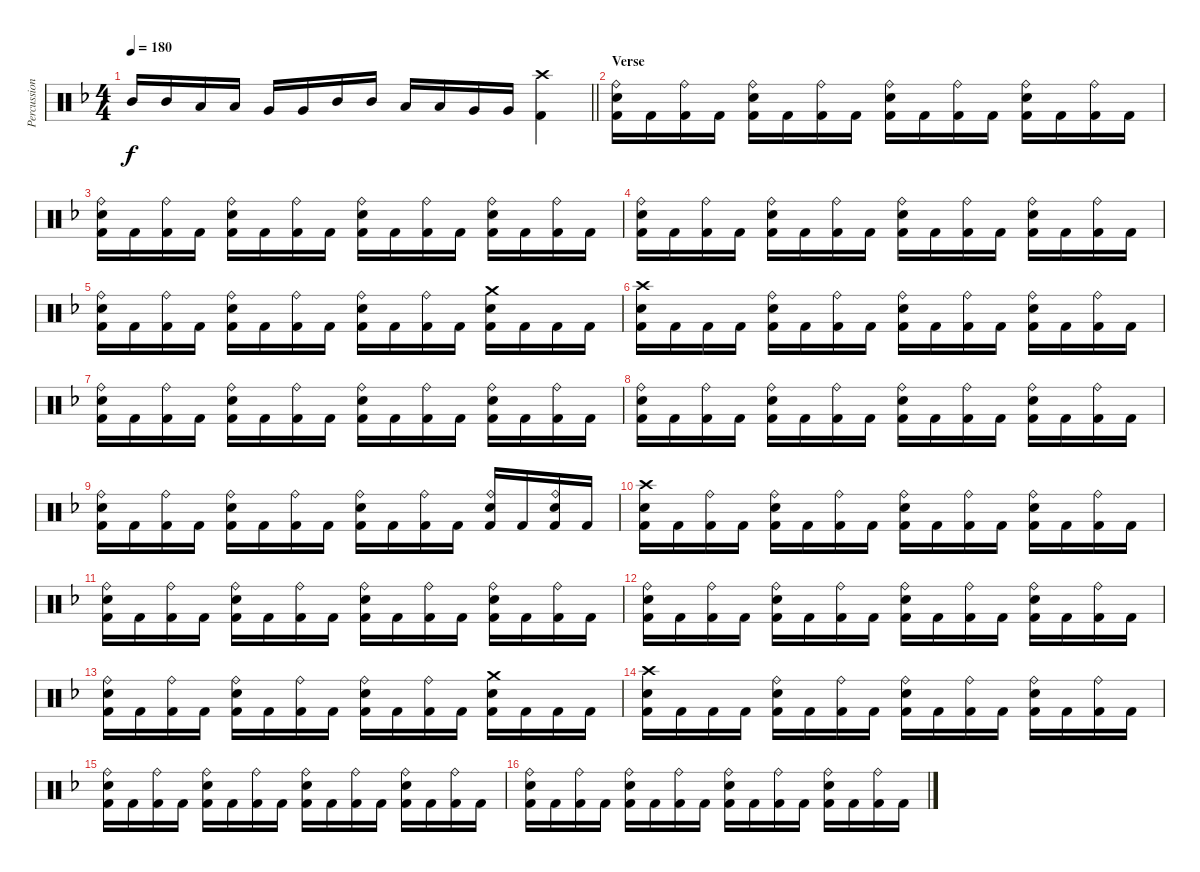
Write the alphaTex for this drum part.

\track ("Percussion" "Percussion") {instrument percussion}
\staff {score}
\articulation defaults
\ts (4 4)
\tempo 180
\clef neutral
\barLineRight lightlight
\ks dminor "Mid Tom (hit)".16{dy f} "Mid Tom (hit)".16 "Low Tom (hit)".16 "Low Tom (hit)".16 "Very Low Tom (hit)".16 "Very Low Tom (hit)".16 "Mid Tom (hit)".16 "Mid Tom (hit)".16 "Low Tom (hit)".16 "Low Tom (hit)".16 "Very Low Tom (hit)".16 "Very Low Tom (hit)".16
("Crash high (hit)" "Kick (hit) 2").4 |
\section ("" "Verse")
("Ride (bell)" "Snare (hit) 2" "Kick (hit) 2").16 "Kick (hit) 2".16 ("Ride (bell)" "Kick (hit) 2").16 "Kick (hit) 2".16 ("Ride (bell)" "Snare (hit) 2" "Kick (hit) 2").16 "Kick (hit) 2".16 ("Ride (bell)" "Kick (hit) 2").16 "Kick (hit) 2".16 ("Ride (bell)" "Snare (hit) 2" "Kick (hit) 2").16 "Kick (hit) 2".16 ("Ride (bell)" "Kick (hit) 2").16 "Kick (hit) 2".16 ("Ride (bell)" "Snare (hit) 2" "Kick (hit) 2").16 "Kick (hit) 2".16 ("Ride (bell)" "Kick (hit) 2").16 "Kick (hit) 2".16 |
("Ride (bell)" "Snare (hit) 2" "Kick (hit) 2").16 "Kick (hit) 2".16 ("Ride (bell)" "Kick (hit) 2").16 "Kick (hit) 2".16 ("Ride (bell)" "Snare (hit) 2" "Kick (hit) 2").16 "Kick (hit) 2".16 ("Ride (bell)" "Kick (hit) 2").16 "Kick (hit) 2".16 ("Ride (bell)" "Snare (hit) 2" "Kick (hit) 2").16 "Kick (hit) 2".16 ("Ride (bell)" "Kick (hit) 2").16 "Kick (hit) 2".16 ("Ride (bell)" "Snare (hit) 2" "Kick (hit) 2").16 "Kick (hit) 2".16 ("Ride (bell)" "Kick (hit) 2").16 "Kick (hit) 2".16 |
("Ride (bell)" "Snare (hit) 2" "Kick (hit) 2").16 "Kick (hit) 2".16 ("Ride (bell)" "Kick (hit) 2").16 "Kick (hit) 2".16 ("Ride (bell)" "Snare (hit) 2" "Kick (hit) 2").16 "Kick (hit) 2".16 ("Ride (bell)" "Kick (hit) 2").16 "Kick (hit) 2".16 ("Ride (bell)" "Snare (hit) 2" "Kick (hit) 2").16 "Kick (hit) 2".16 ("Ride (bell)" "Kick (hit) 2").16 "Kick (hit) 2".16 ("Ride (bell)" "Snare (hit) 2" "Kick (hit) 2").16 "Kick (hit) 2".16 ("Ride (bell)" "Kick (hit) 2").16 "Kick (hit) 2".16 |
("Ride (bell)" "Snare (hit) 2" "Kick (hit) 2").16 "Kick (hit) 2".16 ("Ride (bell)" "Kick (hit) 2").16 "Kick (hit) 2".16 ("Ride (bell)" "Snare (hit) 2" "Kick (hit) 2").16 "Kick (hit) 2".16 ("Ride (bell)" "Kick (hit) 2").16 "Kick (hit) 2".16 ("Ride (bell)" "Snare (hit) 2" "Kick (hit) 2").16 "Kick (hit) 2".16 ("Ride (bell)" "Kick (hit) 2").16 "Kick (hit) 2".16 ("Crash medium (hit)" "Snare (hit) 2" "Kick (hit) 2").16 "Kick (hit) 2".16 "Kick (hit) 2".16 "Kick (hit) 2".16 |
("Crash high (hit)" "Snare (hit) 2" "Kick (hit) 2").16 "Kick (hit) 2".16 "Kick (hit) 2".16 "Kick (hit) 2".16 ("Ride (bell)" "Snare (hit) 2" "Kick (hit) 2").16 "Kick (hit) 2".16 ("Ride (bell)" "Kick (hit) 2").16 "Kick (hit) 2".16 ("Ride (bell)" "Snare (hit) 2" "Kick (hit) 2").16 "Kick (hit) 2".16 ("Ride (bell)" "Kick (hit) 2").16 "Kick (hit) 2".16 ("Ride (bell)" "Snare (hit) 2" "Kick (hit) 2").16 "Kick (hit) 2".16 ("Ride (bell)" "Kick (hit) 2").16 "Kick (hit) 2".16 |
("Ride (bell)" "Snare (hit) 2" "Kick (hit) 2").16 "Kick (hit) 2".16 ("Ride (bell)" "Kick (hit) 2").16 "Kick (hit) 2".16 ("Ride (bell)" "Snare (hit) 2" "Kick (hit) 2").16 "Kick (hit) 2".16 ("Ride (bell)" "Kick (hit) 2").16 "Kick (hit) 2".16 ("Ride (bell)" "Snare (hit) 2" "Kick (hit) 2").16 "Kick (hit) 2".16 ("Ride (bell)" "Kick (hit) 2").16 "Kick (hit) 2".16 ("Ride (bell)" "Snare (hit) 2" "Kick (hit) 2").16 "Kick (hit) 2".16 ("Ride (bell)" "Kick (hit) 2").16 "Kick (hit) 2".16 |
("Ride (bell)" "Snare (hit) 2" "Kick (hit) 2").16 "Kick (hit) 2".16 ("Ride (bell)" "Kick (hit) 2").16 "Kick (hit) 2".16 ("Ride (bell)" "Snare (hit) 2" "Kick (hit) 2").16 "Kick (hit) 2".16 ("Ride (bell)" "Kick (hit) 2").16 "Kick (hit) 2".16 ("Ride (bell)" "Snare (hit) 2" "Kick (hit) 2").16 "Kick (hit) 2".16 ("Ride (bell)" "Kick (hit) 2").16 "Kick (hit) 2".16 ("Ride (bell)" "Snare (hit) 2" "Kick (hit) 2").16 "Kick (hit) 2".16 ("Ride (bell)" "Kick (hit) 2").16 "Kick (hit) 2".16 |
("Ride (bell)" "Snare (hit) 2" "Kick (hit) 2").16 "Kick (hit) 2".16 ("Ride (bell)" "Kick (hit) 2").16 "Kick (hit) 2".16 ("Ride (bell)" "Snare (hit) 2" "Kick (hit) 2").16 "Kick (hit) 2".16 ("Ride (bell)" "Kick (hit) 2").16 "Kick (hit) 2".16 ("Ride (bell)" "Snare (hit) 2" "Kick (hit) 2").16 "Kick (hit) 2".16 ("Ride (bell)" "Kick (hit) 2").16 "Kick (hit) 2".16 ("Ride (bell)" "Snare (hit) 2" "Kick (hit) 2").16 "Kick (hit) 2".16 ("Ride (bell)" "Snare (hit) 2" "Kick (hit) 2").16 "Kick (hit) 2".16 |
("Crash high (hit)" "Snare (hit) 2" "Kick (hit) 2").16 "Kick (hit) 2".16 ("Ride (bell)" "Kick (hit) 2").16 "Kick (hit) 2".16 ("Ride (bell)" "Snare (hit) 2" "Kick (hit) 2").16 "Kick (hit) 2".16 ("Ride (bell)" "Kick (hit) 2").16 "Kick (hit) 2".16 ("Ride (bell)" "Snare (hit) 2" "Kick (hit) 2").16 "Kick (hit) 2".16 ("Ride (bell)" "Kick (hit) 2").16 "Kick (hit) 2".16 ("Ride (bell)" "Snare (hit) 2" "Kick (hit) 2").16 "Kick (hit) 2".16 ("Ride (bell)" "Kick (hit) 2").16 "Kick (hit) 2".16 |
("Ride (bell)" "Snare (hit) 2" "Kick (hit) 2").16 "Kick (hit) 2".16 ("Ride (bell)" "Kick (hit) 2").16 "Kick (hit) 2".16 ("Ride (bell)" "Snare (hit) 2" "Kick (hit) 2").16 "Kick (hit) 2".16 ("Ride (bell)" "Kick (hit) 2").16 "Kick (hit) 2".16 ("Ride (bell)" "Snare (hit) 2" "Kick (hit) 2").16 "Kick (hit) 2".16 ("Ride (bell)" "Kick (hit) 2").16 "Kick (hit) 2".16 ("Ride (bell)" "Snare (hit) 2" "Kick (hit) 2").16 "Kick (hit) 2".16 ("Ride (bell)" "Kick (hit) 2").16 "Kick (hit) 2".16 |
("Ride (bell)" "Snare (hit) 2" "Kick (hit) 2").16 "Kick (hit) 2".16 ("Ride (bell)" "Kick (hit) 2").16 "Kick (hit) 2".16 ("Ride (bell)" "Snare (hit) 2" "Kick (hit) 2").16 "Kick (hit) 2".16 ("Ride (bell)" "Kick (hit) 2").16 "Kick (hit) 2".16 ("Ride (bell)" "Snare (hit) 2" "Kick (hit) 2").16 "Kick (hit) 2".16 ("Ride (bell)" "Kick (hit) 2").16 "Kick (hit) 2".16 ("Ride (bell)" "Snare (hit) 2" "Kick (hit) 2").16 "Kick (hit) 2".16 ("Ride (bell)" "Kick (hit) 2").16 "Kick (hit) 2".16 |
("Ride (bell)" "Snare (hit) 2" "Kick (hit) 2").16 "Kick (hit) 2".16 ("Ride (bell)" "Kick (hit) 2").16 "Kick (hit) 2".16 ("Ride (bell)" "Snare (hit) 2" "Kick (hit) 2").16 "Kick (hit) 2".16 ("Ride (bell)" "Kick (hit) 2").16 "Kick (hit) 2".16 ("Ride (bell)" "Snare (hit) 2" "Kick (hit) 2").16 "Kick (hit) 2".16 ("Ride (bell)" "Kick (hit) 2").16 "Kick (hit) 2".16 ("Crash medium (hit)" "Snare (hit) 2" "Kick (hit) 2").16 "Kick (hit) 2".16 "Kick (hit) 2".16 "Kick (hit) 2".16 |
("Crash high (hit)" "Snare (hit) 2" "Kick (hit) 2").16 "Kick (hit) 2".16 "Kick (hit) 2".16 "Kick (hit) 2".16 ("Ride (bell)" "Snare (hit) 2" "Kick (hit) 2").16 "Kick (hit) 2".16 ("Ride (bell)" "Kick (hit) 2").16 "Kick (hit) 2".16 ("Ride (bell)" "Snare (hit) 2" "Kick (hit) 2").16 "Kick (hit) 2".16 ("Ride (bell)" "Kick (hit) 2").16 "Kick (hit) 2".16 ("Ride (bell)" "Snare (hit) 2" "Kick (hit) 2").16 "Kick (hit) 2".16 ("Ride (bell)" "Kick (hit) 2").16 "Kick (hit) 2".16 |
("Ride (bell)" "Snare (hit) 2" "Kick (hit) 2").16 "Kick (hit) 2".16 ("Ride (bell)" "Kick (hit) 2").16 "Kick (hit) 2".16 ("Ride (bell)" "Snare (hit) 2" "Kick (hit) 2").16 "Kick (hit) 2".16 ("Ride (bell)" "Kick (hit) 2").16 "Kick (hit) 2".16 ("Ride (bell)" "Snare (hit) 2" "Kick (hit) 2").16 "Kick (hit) 2".16 ("Ride (bell)" "Kick (hit) 2").16 "Kick (hit) 2".16 ("Ride (bell)" "Snare (hit) 2" "Kick (hit) 2").16 "Kick (hit) 2".16 ("Ride (bell)" "Kick (hit) 2").16 "Kick (hit) 2".16 |
("Ride (bell)" "Snare (hit) 2" "Kick (hit) 2").16 "Kick (hit) 2".16 ("Ride (bell)" "Kick (hit) 2").16 "Kick (hit) 2".16 ("Ride (bell)" "Snare (hit) 2" "Kick (hit) 2").16 "Kick (hit) 2".16 ("Ride (bell)" "Kick (hit) 2").16 "Kick (hit) 2".16 ("Ride (bell)" "Snare (hit) 2" "Kick (hit) 2").16 "Kick (hit) 2".16 ("Ride (bell)" "Kick (hit) 2").16 "Kick (hit) 2".16 ("Ride (bell)" "Snare (hit) 2" "Kick (hit) 2").16 "Kick (hit) 2".16 ("Ride (bell)" "Kick (hit) 2").16 "Kick (hit) 2".16
